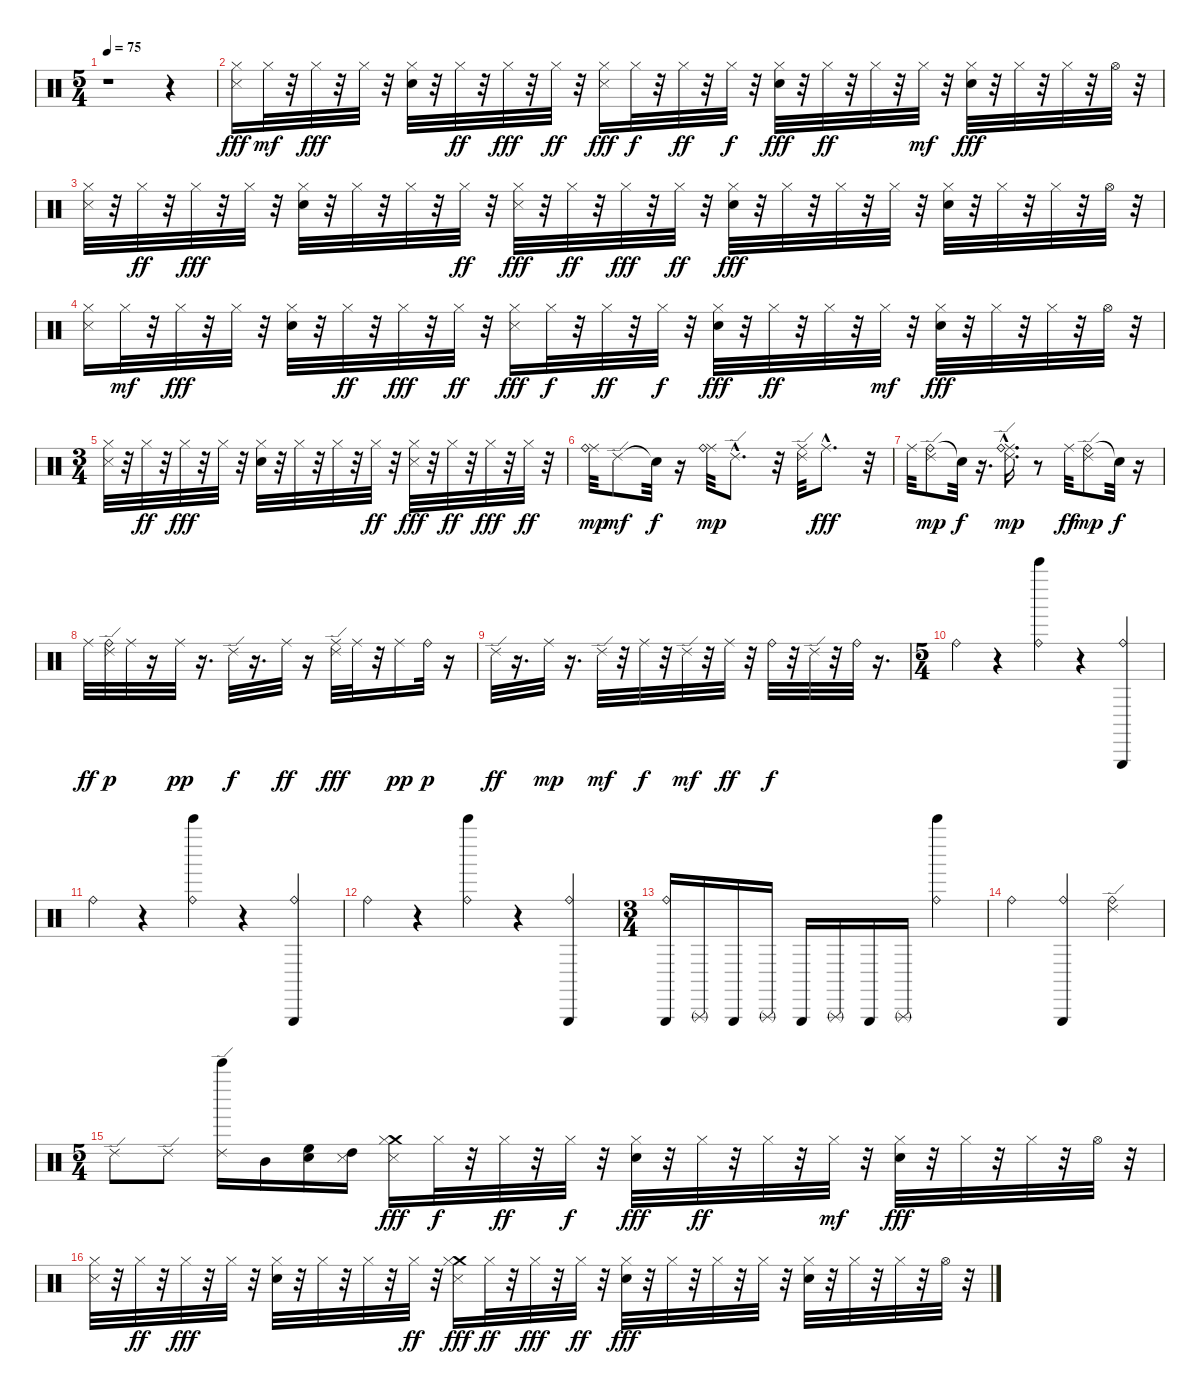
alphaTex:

\track "" {instrument percussion}
\staff {score}
\articulation defaults
\ts (5 4)
\tempo 75
\clef neutral
\ks c
r.1{dy fff} r.4 |
("Metronome (hit)" "Hi-Hat (closed)").16 "Hi-Hat (closed)".32{dy mf} r.32 "Hi-Hat (closed)".32{dy fff} r.32 "Hi-Hat (closed)".32 r.32 ("Snare (hit) 2" "Hi-Hat (closed)").32 r.32 "Hi-Hat (closed)".32{dy ff} r.32 "Hi-Hat (closed)".32{dy fff} r.32 "Hi-Hat (closed)".32{dy ff} r.32 ("Metronome (hit)" "Hi-Hat (closed)").16{dy fff} "Hi-Hat (closed)".32{dy f} r.32 "Hi-Hat (closed)".32{dy ff} r.32 "Hi-Hat (closed)".32{dy f} r.32 ("Snare (hit) 2" "Hi-Hat (closed)").32{dy fff} r.32 "Hi-Hat (closed)".32{dy ff} r.32 "Hi-Hat (closed)".32 r.32 "Hi-Hat (closed)".32{dy mf} r.32 ("Snare (hit) 2" "Hi-Hat (closed)").32{dy fff} r.32 "Hi-Hat (closed)".32 r.32 "Hi-Hat (closed)".32 r.32 "Hi-Hat (open)".32 r.32 |
("Metronome (hit)" "Hi-Hat (closed)").32 r.32 "Hi-Hat (closed)".32{dy ff} r.32 "Hi-Hat (closed)".32{dy fff} r.32 "Hi-Hat (closed)".32 r.32 ("Snare (hit) 2" "Hi-Hat (closed)").32 r.32 "Hi-Hat (closed)".32 r.32 "Hi-Hat (closed)".32 r.32 "Hi-Hat (closed)".32{dy ff} r.32 ("Metronome (hit)" "Hi-Hat (closed)").32{dy fff} r.32 "Hi-Hat (closed)".32{dy ff} r.32 "Hi-Hat (closed)".32{dy fff} r.32 "Hi-Hat (closed)".32{dy ff} r.32 ("Hi-Hat (closed)" "Snare (hit) 2").32{dy fff} r.32 "Hi-Hat (closed)".32 r.32 "Hi-Hat (closed)".32 r.32 "Hi-Hat (closed)".32 r.32 ("Snare (hit) 2" "Hi-Hat (closed)").32 r.32 "Hi-Hat (closed)".32 r.32 "Hi-Hat (closed)".32 r.32 "Hi-Hat (open)".32 r.32 |
("Metronome (hit)" "Hi-Hat (closed)").16 "Hi-Hat (closed)".32{dy mf} r.32 "Hi-Hat (closed)".32{dy fff} r.32 "Hi-Hat (closed)".32 r.32 ("Snare (hit) 2" "Hi-Hat (closed)").32 r.32 "Hi-Hat (closed)".32{dy ff} r.32 "Hi-Hat (closed)".32{dy fff} r.32 "Hi-Hat (closed)".32{dy ff} r.32 ("Metronome (hit)" "Hi-Hat (closed)").16{dy fff} "Hi-Hat (closed)".32{dy f} r.32 "Hi-Hat (closed)".32{dy ff} r.32 "Hi-Hat (closed)".32{dy f} r.32 ("Snare (hit) 2" "Hi-Hat (closed)").32{dy fff} r.32 "Hi-Hat (closed)".32{dy ff} r.32 "Hi-Hat (closed)".32 r.32 "Hi-Hat (closed)".32{dy mf} r.32 ("Snare (hit) 2" "Hi-Hat (closed)").32{dy fff} r.32 "Hi-Hat (closed)".32 r.32 "Hi-Hat (closed)".32 r.32 "Hi-Hat (open)".32 r.32 |
\ts (3 4)
("Metronome (hit)" "Hi-Hat (closed)").32 r.32 "Hi-Hat (closed)".32{dy ff} r.32 "Hi-Hat (closed)".32{dy fff} r.32 "Hi-Hat (closed)".32 r.32 ("Snare (hit) 2" "Hi-Hat (closed)").32 r.32 "Hi-Hat (closed)".32 r.32 "Hi-Hat (closed)".32 r.32 "Hi-Hat (closed)".32{dy ff} r.32 ("Metronome (hit)" "Hi-Hat (closed)").32{dy fff} r.32 "Hi-Hat (closed)".32{dy ff} r.32 "Hi-Hat (closed)".32{dy fff} r.32 "Hi-Hat (closed)".32{dy ff} r.32 |
("Ride (middle)" "Ride (bell)").32{dy mp} "Ride (edge) 2".8{dy mf} "Snare (hit)"{t}.32{dy f} r.16 ("Ride (middle)" "Ride (bell)").32{dy mp} "Ride (edge) 2"{hac}.8{d} r.32 ("Ride (middle)" "Ride (edge) 2").32 "Ride (middle)"{hac}.8{d dy fff} r.32 |
"Ride (middle)".32 ("Ride (bell)" "Ride (edge) 2").8{dy mp} "Snare (hit)"{t}.32{dy f} r.16{d} ("Ride (middle)" "Ride (bell)" "Ride (edge) 2"{hac}).16{d dy mp} r.8 "Ride (middle)".32{dy ff} ("Ride (bell)" "Ride (edge) 2").8{dy mp} "Snare (hit)"{t}.32{dy f} r.16 |
"Ride (middle)".32{dy ff} ("Ride (bell)" "Ride (edge) 2").32{dy p} "Ride (middle)".32 r.16 "Ride (middle)".32{dy pp} r.16{d} "Ride (edge) 2".32{dy f} r.16{d} "Ride (middle)".32{dy ff} r.16 ("Ride (middle)" "Ride (edge) 2").32{dy fff} "Ride (middle)".32 r.32 "Ride (middle)".16{dy pp} "Ride (bell)".32{dy p} r.16 |
"Ride (edge) 2".32{dy ff} r.16{d} "Ride (middle)".32{dy mp} r.16{d} "Ride (edge) 2".32{dy mf} r.32 "Ride (middle)".32{dy f} r.32 "Ride (edge) 2".32{dy mf} r.32 "Ride (middle)".32{dy ff} r.32 "Ride (bell)".32{dy f} r.32 "Ride (edge) 2".32 r.32 "Ride (bell)".32 r.16{d} |
\ts (5 4)
"Ride (bell)".4 r.4 ("Bell Tree (hit)" "Ride (bell)").4 r.4 ("Triangle (hit)" "Ride (bell)").4 |
"Ride (bell)".4 r.4 ("Bell Tree (hit)" "Ride (bell)").4 r.4 ("Triangle (hit)" "Ride (bell)").4 |
"Ride (bell)".4 r.4 ("Bell Tree (hit)" "Ride (bell)").4 r.4 ("Triangle (hit)" "Ride (bell)").4 |
\ts (3 4)
("Triangle (hit)" "Ride (bell)").16 "Triangle (rnute)".16 "Triangle (hit)".16 "Triangle (rnute)".16 "Triangle (hit)".16 "Triangle (rnute)".16 "Triangle (hit)".16 "Triangle (rnute)".16 ("Bell Tree (hit)" "Ride (bell)").4 |
"Ride (bell)".4 ("Triangle (hit)" "Ride (bell)").4 ("Ride (edge) 2" "Ride (bell)").4 |
\ts (5 4)
"Ride (edge) 2".8 "Ride (edge) 2".8 ("Bell Tree (hit)" "Ride (edge) 2").16 "Mid Tom (hit)".16 ("High Floor Tom (hit)" "Electric Snare (hit)").16 ("High Tom (hit)" "Metronome (hit)").16 ("Crash medium (hit)" "Metronome (hit)" "Hi-Hat (closed)").16{dy fff} "Hi-Hat (closed)".32{dy f} r.32 "Hi-Hat (closed)".32{dy ff} r.32 "Hi-Hat (closed)".32{dy f} r.32 ("Snare (hit) 2" "Hi-Hat (closed)").32{dy fff} r.32 "Hi-Hat (closed)".32{dy ff} r.32 "Hi-Hat (closed)".32 r.32 "Hi-Hat (closed)".32{dy mf} r.32 ("Snare (hit) 2" "Hi-Hat (closed)").32{dy fff} r.32 "Hi-Hat (closed)".32 r.32 "Hi-Hat (closed)".32 r.32 "Hi-Hat (open)".32 r.32 |
("Metronome (hit)" "Hi-Hat (closed)").32 r.32 "Hi-Hat (closed)".32{dy ff} r.32 "Hi-Hat (closed)".32{dy fff} r.32 "Hi-Hat (closed)".32 r.32 ("Snare (hit) 2" "Hi-Hat (closed)").32 r.32 "Hi-Hat (closed)".32 r.32 "Hi-Hat (closed)".32 r.32 "Hi-Hat (closed)".32{dy ff} r.32 ("Crash medium (hit)" "Metronome (hit)" "Hi-Hat (closed)").16{dy fff} "Hi-Hat (closed)".32{dy ff} r.32 "Hi-Hat (closed)".32{dy fff} r.32 "Hi-Hat (closed)".32{dy ff} r.32 ("Hi-Hat (closed)" "Snare (hit) 2").32{dy fff} r.32 "Hi-Hat (closed)".32 r.32 "Hi-Hat (closed)".32 r.32 "Hi-Hat (closed)".32 r.32 ("Snare (hit) 2" "Hi-Hat (closed)").32 r.32 "Hi-Hat (closed)".32 r.32 "Hi-Hat (closed)".32 r.32 "Hi-Hat (open)".32 r.32
